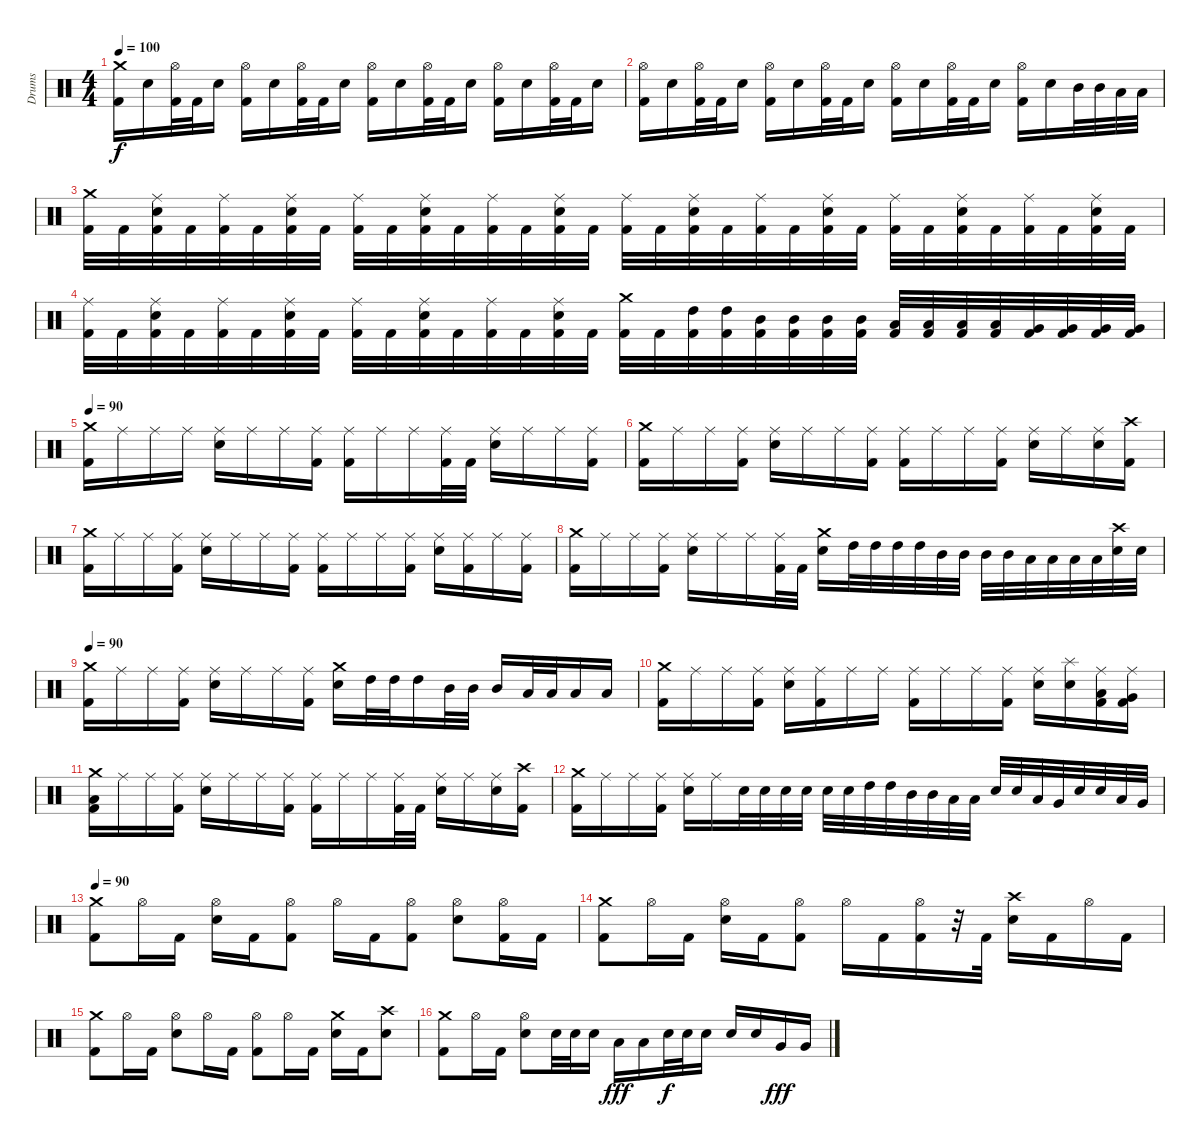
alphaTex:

\track ("Drums" "Drums") {instrument percussion}
\staff {score}
\articulation defaults
\ts (4 4)
\tempo 100
\clef neutral
\ks c
("Kick (hit) 2" "Crash medium (hit)").16{dy f} "Electric Snare (hit)".16 ("Kick (hit) 2" "Hi-Hat (open)").32 "Kick (hit) 2".32 "Electric Snare (hit)".16 ("Kick (hit) 2" "Hi-Hat (open)").16 "Electric Snare (hit)".16 ("Kick (hit) 2" "Hi-Hat (open)").32 "Kick (hit) 2".32 "Electric Snare (hit)".16 ("Kick (hit) 2" "Hi-Hat (open)").16 "Electric Snare (hit)".16 ("Kick (hit) 2" "Hi-Hat (open)").32 "Kick (hit) 2".32 "Electric Snare (hit)".16 ("Kick (hit) 2" "Hi-Hat (open)").16 "Electric Snare (hit)".16 ("Kick (hit) 2" "Hi-Hat (open)").32 "Kick (hit) 2".32 "Electric Snare (hit)".16 |
("Kick (hit) 2" "Hi-Hat (open)").16 "Electric Snare (hit)".16 ("Kick (hit) 2" "Hi-Hat (open)").32 "Kick (hit) 2".32 "Electric Snare (hit)".16 ("Kick (hit) 2" "Hi-Hat (open)").16 "Electric Snare (hit)".16 ("Kick (hit) 2" "Hi-Hat (open)").32 "Kick (hit) 2".32 "Electric Snare (hit)".16 ("Kick (hit) 2" "Hi-Hat (open)").16 "Electric Snare (hit)".16 ("Kick (hit) 2" "Hi-Hat (open)").32 "Kick (hit) 2".32 "Electric Snare (hit)".16 ("Kick (hit) 2" "Hi-Hat (open)").16 "Electric Snare (hit)".16 "Mid Tom (hit)".32 "Mid Tom (hit)".32 "Low Tom (hit)".32 "Low Tom (hit)".32 |
("Kick (hit) 2" "Crash medium (hit)").32 "Kick (hit) 2".32 ("Kick (hit) 2" "Electric Snare (hit)" "Ride (middle)").32 "Kick (hit) 2".32 ("Kick (hit) 2" "Ride (middle)").32 "Kick (hit) 2".32 ("Kick (hit) 2" "Electric Snare (hit)" "Ride (middle)").32 "Kick (hit) 2".32 ("Kick (hit) 2" "Ride (middle)").32 "Kick (hit) 2".32 ("Kick (hit) 2" "Electric Snare (hit)" "Ride (middle)").32 "Kick (hit) 2".32 ("Kick (hit) 2" "Ride (middle)").32 "Kick (hit) 2".32 ("Kick (hit) 2" "Electric Snare (hit)" "Ride (middle)").32 "Kick (hit) 2".32 ("Kick (hit) 2" "Ride (middle)").32 "Kick (hit) 2".32 ("Kick (hit) 2" "Electric Snare (hit)" "Ride (middle)").32 "Kick (hit) 2".32 ("Kick (hit) 2" "Ride (middle)").32 "Kick (hit) 2".32 ("Kick (hit) 2" "Electric Snare (hit)" "Ride (middle)").32 "Kick (hit) 2".32 ("Kick (hit) 2" "Ride (middle)").32 "Kick (hit) 2".32 ("Kick (hit) 2" "Electric Snare (hit)" "Ride (middle)").32 "Kick (hit) 2".32 ("Kick (hit) 2" "Ride (middle)").32 "Kick (hit) 2".32 ("Kick (hit) 2" "Electric Snare (hit)" "Ride (middle)").32 "Kick (hit) 2".32 |
("Kick (hit) 2" "Ride (middle)").32 "Kick (hit) 2".32 ("Kick (hit) 2" "Electric Snare (hit)" "Ride (middle)").32 "Kick (hit) 2".32 ("Kick (hit) 2" "Ride (middle)").32 "Kick (hit) 2".32 ("Kick (hit) 2" "Electric Snare (hit)" "Ride (middle)").32 "Kick (hit) 2".32 ("Kick (hit) 2" "Ride (middle)").32 "Kick (hit) 2".32 ("Kick (hit) 2" "Electric Snare (hit)" "Ride (middle)").32 "Kick (hit) 2".32 ("Kick (hit) 2" "Ride (middle)").32 "Kick (hit) 2".32 ("Kick (hit) 2" "Electric Snare (hit)" "Ride (middle)").32 "Kick (hit) 2".32 ("Kick (hit) 2" "Crash medium (hit)").32 "Kick (hit) 2".32 ("Kick (hit) 2" "High Tom (hit)").32 ("Kick (hit) 2" "High Tom (hit)").32 ("Kick (hit) 2" "Mid Tom (hit)").32 ("Kick (hit) 2" "Mid Tom (hit)").32 ("Kick (hit) 2" "Mid Tom (hit)").32 ("Kick (hit) 2" "Mid Tom (hit)").32 ("Kick (hit) 2" "Low Tom (hit)").32 ("Kick (hit) 2" "Low Tom (hit)").32 ("Kick (hit) 2" "Low Tom (hit)").32 ("Kick (hit) 2" "Low Tom (hit)").32 ("Kick (hit) 2" "Very Low Tom (hit)").32 ("Kick (hit) 2" "Very Low Tom (hit)").32 ("Kick (hit) 2" "Very Low Tom (hit)").32 ("Kick (hit) 2" "Very Low Tom (hit)").32 |
\tempo 90
("Kick (hit) 2" "Crash medium (hit)").16 "Ride (middle)".16 "Ride (middle)".16 "Ride (middle)".16 ("Electric Snare (hit)" "Ride (middle)").16 "Ride (middle)".16 "Ride (middle)".16 ("Kick (hit) 2" "Ride (middle)").16 ("Kick (hit) 2" "Ride (middle)").16 "Ride (middle)".16 "Ride (middle)".16 ("Kick (hit) 2" "Ride (middle)").32 "Kick (hit) 2".32 ("Electric Snare (hit)" "Ride (middle)").16 "Ride (middle)".16 "Ride (middle)".16 ("Kick (hit) 2" "Ride (middle)").16 |
("Kick (hit) 2" "Crash medium (hit)").16 "Ride (middle)".16 "Ride (middle)".16 ("Kick (hit) 2" "Ride (middle)").16 ("Electric Snare (hit)" "Ride (middle)").16 "Ride (middle)".16 "Ride (middle)".16 ("Kick (hit) 2" "Ride (middle)").16 ("Kick (hit) 2" "Ride (middle)").16 "Ride (middle)".16 "Ride (middle)".16 ("Kick (hit) 2" "Ride (middle)").16 ("Electric Snare (hit)" "Ride (middle)").16 "Ride (middle)".16 ("Electric Snare (hit)" "Ride (middle)").16 ("Kick (hit) 2" "Crash high (hit)").16 |
("Kick (hit) 2" "Crash medium (hit)").16 "Ride (middle)".16 "Ride (middle)".16 ("Kick (hit) 2" "Ride (middle)").16 ("Electric Snare (hit)" "Ride (middle)").16 "Ride (middle)".16 "Ride (middle)".16 ("Kick (hit) 2" "Ride (middle)").16 ("Kick (hit) 2" "Ride (middle)").16 "Ride (middle)".16 "Ride (middle)".16 ("Kick (hit) 2" "Ride (middle)").16 ("Electric Snare (hit)" "Ride (middle)").16 ("Kick (hit) 2" "Ride (middle)").16 "Ride (middle)".16 ("Kick (hit) 2" "Ride (middle)").16 |
("Kick (hit) 2" "Crash medium (hit)").16 "Ride (middle)".16 "Ride (middle)".16 ("Kick (hit) 2" "Ride (middle)").16 ("Electric Snare (hit)" "Ride (middle)").16 "Ride (middle)".16 "Ride (middle)".16 ("Kick (hit) 2" "Ride (middle)").32 "Kick (hit) 2".32 ("Electric Snare (hit)" "Crash medium (hit)").16 "High Tom (hit)".32 "High Tom (hit)".32 "High Tom (hit)".32 "High Tom (hit)".32 "Mid Tom (hit)".32 "Mid Tom (hit)".32 "Mid Tom (hit)".32 "Mid Tom (hit)".32 "Low Tom (hit)".32 "Low Tom (hit)".32 "Low Tom (hit)".32 "Low Tom (hit)".32 ("Electric Snare (hit)" "Crash high (hit)").32 "Electric Snare (hit)".32 |
\tempo 90
("Kick (hit) 2" "Crash medium (hit)").16 "Ride (middle)".16 "Ride (middle)".16 ("Kick (hit) 2" "Ride (middle)").16 ("Electric Snare (hit)" "Ride (middle)").16 "Ride (middle)".16 "Ride (middle)".16 ("Kick (hit) 2" "Ride (middle)").16 ("Electric Snare (hit)" "Crash medium (hit)").16 "High Tom (hit)".32 "High Tom (hit)".32 "High Tom (hit)".16 "Mid Tom (hit)".32 "Mid Tom (hit)".32 "Mid Tom (hit)".16 "Low Tom (hit)".32 "Low Tom (hit)".32 "Low Tom (hit)".16 "Low Tom (hit)".16 |
("Kick (hit) 2" "Crash medium (hit)").16 "Ride (middle)".16 "Ride (middle)".16 ("Kick (hit) 2" "Ride (middle)").16 ("Electric Snare (hit)" "Ride (middle)").16 ("Kick (hit) 2" "Ride (middle)").16 "Ride (middle)".16 "Ride (middle)".16 ("Kick (hit) 2" "Ride (middle)").16 "Ride (middle)".16 "Ride (middle)".16 ("Kick (hit) 2" "Ride (middle)").16 ("Electric Snare (hit)" "Ride (middle)").16 ("Electric Snare (hit)" "Splash (hit)").16 ("Kick (hit) 2" "Low Tom (hit)" "Ride (middle)").16 ("Kick (hit) 2" "Very Low Tom (hit)" "Ride (middle)").16 |
("Kick (hit) 2" "Low Floor Tom (hit)" "Crash medium (hit)").16 "Ride (middle)".16 "Ride (middle)".16 ("Kick (hit) 2" "Ride (middle)").16 ("Electric Snare (hit)" "Ride (middle)").16 "Ride (middle)".16 "Ride (middle)".16 ("Kick (hit) 2" "Ride (middle)").16 ("Kick (hit) 2" "Ride (middle)").16 "Ride (middle)".16 "Ride (middle)".16 ("Kick (hit) 2" "Ride (middle)").32 "Kick (hit) 2".32 ("Electric Snare (hit)" "Ride (middle)").16 "Ride (middle)".16 ("Electric Snare (hit)" "Ride (middle)").16 ("Kick (hit) 2" "Crash high (hit)").16 |
("Kick (hit) 2" "Crash medium (hit)").16 "Ride (middle)".16 "Ride (middle)".16 ("Kick (hit) 2" "Ride (middle)").16 ("Electric Snare (hit)" "Ride (middle)").16 "Ride (middle)".16 "Electric Snare (hit)".32 "Electric Snare (hit)".32 "Electric Snare (hit)".32 "Electric Snare (hit)".32 "Electric Snare (hit)".32 "Electric Snare (hit)".32 "High Tom (hit)".32 "High Tom (hit)".32 "Mid Tom (hit)".32 "Mid Tom (hit)".32 "Low Tom (hit)".32 "Low Tom (hit)".32 "Electric Snare (hit)".32 "Electric Snare (hit)".32 "Low Tom (hit)".32 "Very Low Tom (hit)".32 "Electric Snare (hit)".32 "Electric Snare (hit)".32 "Low Tom (hit)".32 "Very Low Tom (hit)".32 |
\tempo 90
("Kick (hit) 2" "Crash medium (hit)").8 "Hi-Hat (open)".16 "Kick (hit) 2".16 ("Electric Snare (hit)" "Hi-Hat (open)").16 "Kick (hit) 2".16 ("Kick (hit) 2" "Hi-Hat (open)").8 "Hi-Hat (open)".16 "Kick (hit) 2".16 ("Kick (hit) 2" "Hi-Hat (open)").8 ("Electric Snare (hit)" "Hi-Hat (open)").8 ("Kick (hit) 2" "Hi-Hat (open)").16 "Kick (hit) 2".16 |
("Kick (hit) 2" "Crash medium (hit)").8 "Hi-Hat (open)".16 "Kick (hit) 2".16 ("Electric Snare (hit)" "Hi-Hat (open)").16 "Kick (hit) 2".16 ("Kick (hit) 2" "Hi-Hat (open)").8 "Hi-Hat (open)".16 "Kick (hit) 2".16 ("Kick (hit) 2" "Hi-Hat (open)").16 r.32 "Kick (hit) 2".32 ("Electric Snare (hit)" "Crash high (hit)").16 "Kick (hit) 2".16 "Hi-Hat (open)".16 "Kick (hit) 2".16 |
("Kick (hit) 2" "Crash medium (hit)").8 "Hi-Hat (open)".16 "Kick (hit) 2".16 ("Electric Snare (hit)" "Hi-Hat (open)").8 "Hi-Hat (open)".16 "Kick (hit) 2".16 ("Kick (hit) 2" "Hi-Hat (open)").8 "Hi-Hat (open)".16 "Kick (hit) 2".16 ("Electric Snare (hit)" "Crash medium (hit)").16 "Kick (hit) 2".16 ("Electric Snare (hit)" "Crash high (hit)").8 |
("Kick (hit) 2" "Crash medium (hit)").8 "Hi-Hat (open)".16 "Kick (hit) 2".16 ("Electric Snare (hit)" "Hi-Hat (open)").8 "Electric Snare (hit)".32 "Electric Snare (hit)".32 "Electric Snare (hit)".16 "Low Tom (hit)".16{dy fff} "Low Tom (hit)".16 "Electric Snare (hit)".32{dy f} "Electric Snare (hit)".32 "Electric Snare (hit)".16 "Electric Snare (hit)".16 "Electric Snare (hit)".16 "Very Low Tom (hit)".16{dy fff} "Very Low Tom (hit)".16
